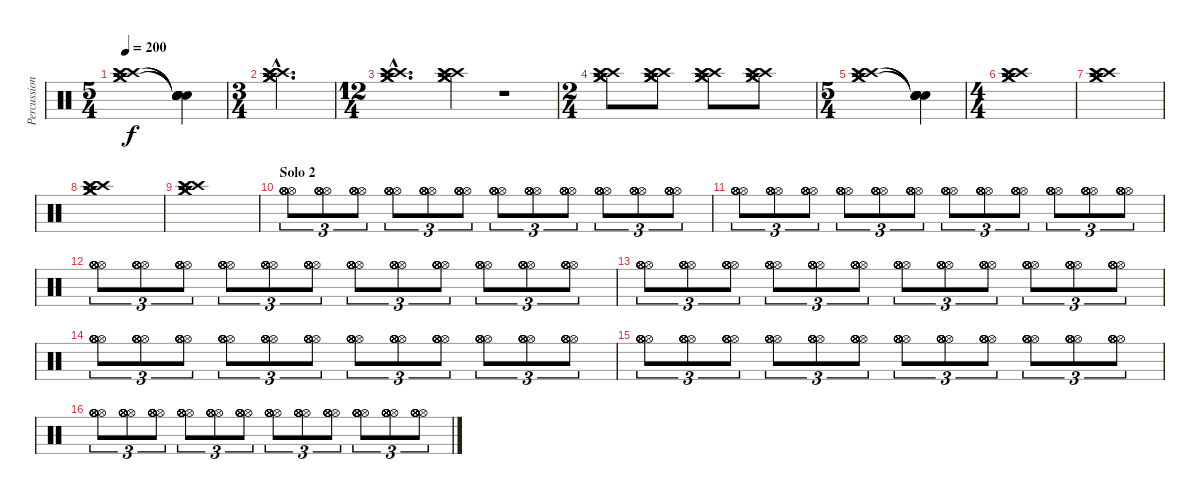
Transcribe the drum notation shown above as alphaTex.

\track ("Percussion" "Percussion") {instrument percussion}
\staff {score}
\articulation defaults
\ts (5 4)
\tempo 200
\clef neutral
\ks c
("Crash high (hit)" "Crash high (hit)" "Crash high (hit)" "Crash medium (hit)" "Crash medium (hit)" "Crash medium (hit)").1{dy f} ("Snare (hit)"{t} "Snare (hit)"{t} "Snare (hit)"{t} "Snare (hit)"{t} "Snare (hit)"{t} "Snare (hit)"{t}).4 |
\ts (3 4)
("Crash high (hit)"{hac} "Crash high (hit)"{hac} "Crash high (hit)"{hac} "Crash medium (hit)"{hac} "Crash medium (hit)"{hac} "Crash medium (hit)"{hac}).2{d} |
\ts (12 4)
("Crash high (hit)"{hac} "Crash high (hit)"{hac} "Crash high (hit)"{hac} "Crash medium (hit)"{hac} "Crash medium (hit)"{hac} "Crash medium (hit)"{hac}).1{d} ("Crash high (hit)" "Crash high (hit)" "Crash high (hit)" "Crash medium (hit)" "Crash medium (hit)" "Crash medium (hit)").2 r.1 |
\ts (2 4)
("Crash high (hit)" "Crash high (hit)" "Crash high (hit)" "Crash medium (hit)" "Crash medium (hit)" "Crash medium (hit)").8 ("Crash high (hit)" "Crash high (hit)" "Crash high (hit)" "Crash medium (hit)" "Crash medium (hit)" "Crash medium (hit)").8 ("Crash high (hit)" "Crash high (hit)" "Crash high (hit)" "Crash medium (hit)" "Crash medium (hit)" "Crash medium (hit)").8 ("Crash high (hit)" "Crash high (hit)" "Crash high (hit)" "Crash medium (hit)" "Crash medium (hit)" "Crash medium (hit)").8 |
\ts (5 4)
("Crash high (hit)" "Crash high (hit)" "Crash high (hit)" "Crash medium (hit)" "Crash medium (hit)" "Crash medium (hit)").1 ("Snare (hit)"{t} "Snare (hit)"{t} "Snare (hit)"{t} "Snare (hit)"{t} "Snare (hit)"{t} "Snare (hit)"{t}).4 |
\ts (4 4)
("Crash high (hit)" "Crash high (hit)" "Crash high (hit)" "Crash medium (hit)" "Crash medium (hit)" "Crash medium (hit)").1 |
("Crash high (hit)" "Crash high (hit)" "Crash high (hit)" "Crash medium (hit)" "Crash medium (hit)" "Crash medium (hit)").1 |
("Crash high (hit)" "Crash high (hit)" "Crash high (hit)" "Crash medium (hit)" "Crash medium (hit)" "Crash medium (hit)").1 |
("Crash high (hit)" "Crash high (hit)" "Crash high (hit)" "Crash medium (hit)" "Crash medium (hit)" "Crash medium (hit)").1 |
\section ("" "Solo 2 ")
("Hi-Hat (open)" "Hi-Hat (open)" "Hi-Hat (open)" "Hi-Hat (open)" "Hi-Hat (open)" "Hi-Hat (open)").8{tu (3 2)} ("Hi-Hat (open)" "Hi-Hat (open)" "Hi-Hat (open)" "Hi-Hat (open)" "Hi-Hat (open)" "Hi-Hat (open)").8{tu (3 2)} ("Hi-Hat (open)" "Hi-Hat (open)" "Hi-Hat (open)" "Hi-Hat (open)" "Hi-Hat (open)" "Hi-Hat (open)").8{tu (3 2)} ("Hi-Hat (open)" "Hi-Hat (open)" "Hi-Hat (open)" "Hi-Hat (open)" "Hi-Hat (open)" "Hi-Hat (open)").8{tu (3 2)} ("Hi-Hat (open)" "Hi-Hat (open)" "Hi-Hat (open)" "Hi-Hat (open)" "Hi-Hat (open)" "Hi-Hat (open)").8{tu (3 2)} ("Hi-Hat (open)" "Hi-Hat (open)" "Hi-Hat (open)" "Hi-Hat (open)" "Hi-Hat (open)" "Hi-Hat (open)").8{tu (3 2)} ("Hi-Hat (open)" "Hi-Hat (open)" "Hi-Hat (open)" "Hi-Hat (open)" "Hi-Hat (open)" "Hi-Hat (open)").8{tu (3 2)} ("Hi-Hat (open)" "Hi-Hat (open)" "Hi-Hat (open)" "Hi-Hat (open)" "Hi-Hat (open)" "Hi-Hat (open)").8{tu (3 2)} ("Hi-Hat (open)" "Hi-Hat (open)" "Hi-Hat (open)" "Hi-Hat (open)" "Hi-Hat (open)" "Hi-Hat (open)").8{tu (3 2)} ("Hi-Hat (open)" "Hi-Hat (open)" "Hi-Hat (open)" "Hi-Hat (open)" "Hi-Hat (open)" "Hi-Hat (open)").8{tu (3 2)} ("Hi-Hat (open)" "Hi-Hat (open)" "Hi-Hat (open)" "Hi-Hat (open)" "Hi-Hat (open)" "Hi-Hat (open)").8{tu (3 2)} ("Hi-Hat (open)" "Hi-Hat (open)" "Hi-Hat (open)" "Hi-Hat (open)" "Hi-Hat (open)" "Hi-Hat (open)").8{tu (3 2)} |
("Hi-Hat (open)" "Hi-Hat (open)" "Hi-Hat (open)" "Hi-Hat (open)" "Hi-Hat (open)" "Hi-Hat (open)").8{tu (3 2)} ("Hi-Hat (open)" "Hi-Hat (open)" "Hi-Hat (open)" "Hi-Hat (open)" "Hi-Hat (open)" "Hi-Hat (open)").8{tu (3 2)} ("Hi-Hat (open)" "Hi-Hat (open)" "Hi-Hat (open)" "Hi-Hat (open)" "Hi-Hat (open)" "Hi-Hat (open)").8{tu (3 2)} ("Hi-Hat (open)" "Hi-Hat (open)" "Hi-Hat (open)" "Hi-Hat (open)" "Hi-Hat (open)" "Hi-Hat (open)").8{tu (3 2)} ("Hi-Hat (open)" "Hi-Hat (open)" "Hi-Hat (open)" "Hi-Hat (open)" "Hi-Hat (open)" "Hi-Hat (open)").8{tu (3 2)} ("Hi-Hat (open)" "Hi-Hat (open)" "Hi-Hat (open)" "Hi-Hat (open)" "Hi-Hat (open)" "Hi-Hat (open)").8{tu (3 2)} ("Hi-Hat (open)" "Hi-Hat (open)" "Hi-Hat (open)" "Hi-Hat (open)" "Hi-Hat (open)" "Hi-Hat (open)").8{tu (3 2)} ("Hi-Hat (open)" "Hi-Hat (open)" "Hi-Hat (open)" "Hi-Hat (open)" "Hi-Hat (open)" "Hi-Hat (open)").8{tu (3 2)} ("Hi-Hat (open)" "Hi-Hat (open)" "Hi-Hat (open)" "Hi-Hat (open)" "Hi-Hat (open)" "Hi-Hat (open)").8{tu (3 2)} ("Hi-Hat (open)" "Hi-Hat (open)" "Hi-Hat (open)" "Hi-Hat (open)" "Hi-Hat (open)" "Hi-Hat (open)").8{tu (3 2)} ("Hi-Hat (open)" "Hi-Hat (open)" "Hi-Hat (open)" "Hi-Hat (open)" "Hi-Hat (open)" "Hi-Hat (open)").8{tu (3 2)} ("Hi-Hat (open)" "Hi-Hat (open)" "Hi-Hat (open)" "Hi-Hat (open)" "Hi-Hat (open)" "Hi-Hat (open)").8{tu (3 2)} |
("Hi-Hat (open)" "Hi-Hat (open)" "Hi-Hat (open)" "Hi-Hat (open)" "Hi-Hat (open)" "Hi-Hat (open)").8{tu (3 2)} ("Hi-Hat (open)" "Hi-Hat (open)" "Hi-Hat (open)" "Hi-Hat (open)" "Hi-Hat (open)" "Hi-Hat (open)").8{tu (3 2)} ("Hi-Hat (open)" "Hi-Hat (open)" "Hi-Hat (open)" "Hi-Hat (open)" "Hi-Hat (open)" "Hi-Hat (open)").8{tu (3 2)} ("Hi-Hat (open)" "Hi-Hat (open)" "Hi-Hat (open)" "Hi-Hat (open)" "Hi-Hat (open)" "Hi-Hat (open)").8{tu (3 2)} ("Hi-Hat (open)" "Hi-Hat (open)" "Hi-Hat (open)" "Hi-Hat (open)" "Hi-Hat (open)" "Hi-Hat (open)").8{tu (3 2)} ("Hi-Hat (open)" "Hi-Hat (open)" "Hi-Hat (open)" "Hi-Hat (open)" "Hi-Hat (open)" "Hi-Hat (open)").8{tu (3 2)} ("Hi-Hat (open)" "Hi-Hat (open)" "Hi-Hat (open)" "Hi-Hat (open)" "Hi-Hat (open)" "Hi-Hat (open)").8{tu (3 2)} ("Hi-Hat (open)" "Hi-Hat (open)" "Hi-Hat (open)" "Hi-Hat (open)" "Hi-Hat (open)" "Hi-Hat (open)").8{tu (3 2)} ("Hi-Hat (open)" "Hi-Hat (open)" "Hi-Hat (open)" "Hi-Hat (open)" "Hi-Hat (open)" "Hi-Hat (open)").8{tu (3 2)} ("Hi-Hat (open)" "Hi-Hat (open)" "Hi-Hat (open)" "Hi-Hat (open)" "Hi-Hat (open)" "Hi-Hat (open)").8{tu (3 2)} ("Hi-Hat (open)" "Hi-Hat (open)" "Hi-Hat (open)" "Hi-Hat (open)" "Hi-Hat (open)" "Hi-Hat (open)").8{tu (3 2)} ("Hi-Hat (open)" "Hi-Hat (open)" "Hi-Hat (open)" "Hi-Hat (open)" "Hi-Hat (open)" "Hi-Hat (open)").8{tu (3 2)} |
("Hi-Hat (open)" "Hi-Hat (open)" "Hi-Hat (open)" "Hi-Hat (open)" "Hi-Hat (open)" "Hi-Hat (open)").8{tu (3 2)} ("Hi-Hat (open)" "Hi-Hat (open)" "Hi-Hat (open)" "Hi-Hat (open)" "Hi-Hat (open)" "Hi-Hat (open)").8{tu (3 2)} ("Hi-Hat (open)" "Hi-Hat (open)" "Hi-Hat (open)" "Hi-Hat (open)" "Hi-Hat (open)" "Hi-Hat (open)").8{tu (3 2)} ("Hi-Hat (open)" "Hi-Hat (open)" "Hi-Hat (open)" "Hi-Hat (open)" "Hi-Hat (open)" "Hi-Hat (open)").8{tu (3 2)} ("Hi-Hat (open)" "Hi-Hat (open)" "Hi-Hat (open)" "Hi-Hat (open)" "Hi-Hat (open)" "Hi-Hat (open)").8{tu (3 2)} ("Hi-Hat (open)" "Hi-Hat (open)" "Hi-Hat (open)" "Hi-Hat (open)" "Hi-Hat (open)" "Hi-Hat (open)").8{tu (3 2)} ("Hi-Hat (open)" "Hi-Hat (open)" "Hi-Hat (open)" "Hi-Hat (open)" "Hi-Hat (open)" "Hi-Hat (open)").8{tu (3 2)} ("Hi-Hat (open)" "Hi-Hat (open)" "Hi-Hat (open)" "Hi-Hat (open)" "Hi-Hat (open)" "Hi-Hat (open)").8{tu (3 2)} ("Hi-Hat (open)" "Hi-Hat (open)" "Hi-Hat (open)" "Hi-Hat (open)" "Hi-Hat (open)" "Hi-Hat (open)").8{tu (3 2)} ("Hi-Hat (open)" "Hi-Hat (open)" "Hi-Hat (open)" "Hi-Hat (open)" "Hi-Hat (open)" "Hi-Hat (open)").8{tu (3 2)} ("Hi-Hat (open)" "Hi-Hat (open)" "Hi-Hat (open)" "Hi-Hat (open)" "Hi-Hat (open)" "Hi-Hat (open)").8{tu (3 2)} ("Hi-Hat (open)" "Hi-Hat (open)" "Hi-Hat (open)" "Hi-Hat (open)" "Hi-Hat (open)" "Hi-Hat (open)").8{tu (3 2)} |
("Hi-Hat (open)" "Hi-Hat (open)" "Hi-Hat (open)" "Hi-Hat (open)" "Hi-Hat (open)" "Hi-Hat (open)").8{tu (3 2)} ("Hi-Hat (open)" "Hi-Hat (open)" "Hi-Hat (open)" "Hi-Hat (open)" "Hi-Hat (open)" "Hi-Hat (open)").8{tu (3 2)} ("Hi-Hat (open)" "Hi-Hat (open)" "Hi-Hat (open)" "Hi-Hat (open)" "Hi-Hat (open)" "Hi-Hat (open)").8{tu (3 2)} ("Hi-Hat (open)" "Hi-Hat (open)" "Hi-Hat (open)" "Hi-Hat (open)" "Hi-Hat (open)" "Hi-Hat (open)").8{tu (3 2)} ("Hi-Hat (open)" "Hi-Hat (open)" "Hi-Hat (open)" "Hi-Hat (open)" "Hi-Hat (open)" "Hi-Hat (open)").8{tu (3 2)} ("Hi-Hat (open)" "Hi-Hat (open)" "Hi-Hat (open)" "Hi-Hat (open)" "Hi-Hat (open)" "Hi-Hat (open)").8{tu (3 2)} ("Hi-Hat (open)" "Hi-Hat (open)" "Hi-Hat (open)" "Hi-Hat (open)" "Hi-Hat (open)" "Hi-Hat (open)").8{tu (3 2)} ("Hi-Hat (open)" "Hi-Hat (open)" "Hi-Hat (open)" "Hi-Hat (open)" "Hi-Hat (open)" "Hi-Hat (open)").8{tu (3 2)} ("Hi-Hat (open)" "Hi-Hat (open)" "Hi-Hat (open)" "Hi-Hat (open)" "Hi-Hat (open)" "Hi-Hat (open)").8{tu (3 2)} ("Hi-Hat (open)" "Hi-Hat (open)" "Hi-Hat (open)" "Hi-Hat (open)" "Hi-Hat (open)" "Hi-Hat (open)").8{tu (3 2)} ("Hi-Hat (open)" "Hi-Hat (open)" "Hi-Hat (open)" "Hi-Hat (open)" "Hi-Hat (open)" "Hi-Hat (open)").8{tu (3 2)} ("Hi-Hat (open)" "Hi-Hat (open)" "Hi-Hat (open)" "Hi-Hat (open)" "Hi-Hat (open)" "Hi-Hat (open)").8{tu (3 2)} |
("Hi-Hat (open)" "Hi-Hat (open)" "Hi-Hat (open)" "Hi-Hat (open)" "Hi-Hat (open)" "Hi-Hat (open)").8{tu (3 2)} ("Hi-Hat (open)" "Hi-Hat (open)" "Hi-Hat (open)" "Hi-Hat (open)" "Hi-Hat (open)" "Hi-Hat (open)").8{tu (3 2)} ("Hi-Hat (open)" "Hi-Hat (open)" "Hi-Hat (open)" "Hi-Hat (open)" "Hi-Hat (open)" "Hi-Hat (open)").8{tu (3 2)} ("Hi-Hat (open)" "Hi-Hat (open)" "Hi-Hat (open)" "Hi-Hat (open)" "Hi-Hat (open)" "Hi-Hat (open)").8{tu (3 2)} ("Hi-Hat (open)" "Hi-Hat (open)" "Hi-Hat (open)" "Hi-Hat (open)" "Hi-Hat (open)" "Hi-Hat (open)").8{tu (3 2)} ("Hi-Hat (open)" "Hi-Hat (open)" "Hi-Hat (open)" "Hi-Hat (open)" "Hi-Hat (open)" "Hi-Hat (open)").8{tu (3 2)} ("Hi-Hat (open)" "Hi-Hat (open)" "Hi-Hat (open)" "Hi-Hat (open)" "Hi-Hat (open)" "Hi-Hat (open)").8{tu (3 2)} ("Hi-Hat (open)" "Hi-Hat (open)" "Hi-Hat (open)" "Hi-Hat (open)" "Hi-Hat (open)" "Hi-Hat (open)").8{tu (3 2)} ("Hi-Hat (open)" "Hi-Hat (open)" "Hi-Hat (open)" "Hi-Hat (open)" "Hi-Hat (open)" "Hi-Hat (open)").8{tu (3 2)} ("Hi-Hat (open)" "Hi-Hat (open)" "Hi-Hat (open)" "Hi-Hat (open)" "Hi-Hat (open)" "Hi-Hat (open)").8{tu (3 2)} ("Hi-Hat (open)" "Hi-Hat (open)" "Hi-Hat (open)" "Hi-Hat (open)" "Hi-Hat (open)" "Hi-Hat (open)").8{tu (3 2)} ("Hi-Hat (open)" "Hi-Hat (open)" "Hi-Hat (open)" "Hi-Hat (open)" "Hi-Hat (open)" "Hi-Hat (open)").8{tu (3 2)} |
("Hi-Hat (open)" "Hi-Hat (open)" "Hi-Hat (open)" "Hi-Hat (open)" "Hi-Hat (open)" "Hi-Hat (open)").8{tu (3 2)} ("Hi-Hat (open)" "Hi-Hat (open)" "Hi-Hat (open)" "Hi-Hat (open)" "Hi-Hat (open)" "Hi-Hat (open)").8{tu (3 2)} ("Hi-Hat (open)" "Hi-Hat (open)" "Hi-Hat (open)" "Hi-Hat (open)" "Hi-Hat (open)" "Hi-Hat (open)").8{tu (3 2)} ("Hi-Hat (open)" "Hi-Hat (open)" "Hi-Hat (open)" "Hi-Hat (open)" "Hi-Hat (open)" "Hi-Hat (open)").8{tu (3 2)} ("Hi-Hat (open)" "Hi-Hat (open)" "Hi-Hat (open)" "Hi-Hat (open)" "Hi-Hat (open)" "Hi-Hat (open)").8{tu (3 2)} ("Hi-Hat (open)" "Hi-Hat (open)" "Hi-Hat (open)" "Hi-Hat (open)" "Hi-Hat (open)" "Hi-Hat (open)").8{tu (3 2)} ("Hi-Hat (open)" "Hi-Hat (open)" "Hi-Hat (open)" "Hi-Hat (open)" "Hi-Hat (open)" "Hi-Hat (open)").8{tu (3 2)} ("Hi-Hat (open)" "Hi-Hat (open)" "Hi-Hat (open)" "Hi-Hat (open)" "Hi-Hat (open)" "Hi-Hat (open)").8{tu (3 2)} ("Hi-Hat (open)" "Hi-Hat (open)" "Hi-Hat (open)" "Hi-Hat (open)" "Hi-Hat (open)" "Hi-Hat (open)").8{tu (3 2)} ("Hi-Hat (open)" "Hi-Hat (open)" "Hi-Hat (open)" "Hi-Hat (open)" "Hi-Hat (open)" "Hi-Hat (open)").8{tu (3 2)} ("Hi-Hat (open)" "Hi-Hat (open)" "Hi-Hat (open)" "Hi-Hat (open)" "Hi-Hat (open)" "Hi-Hat (open)").8{tu (3 2)} ("Hi-Hat (open)" "Hi-Hat (open)" "Hi-Hat (open)" "Hi-Hat (open)" "Hi-Hat (open)" "Hi-Hat (open)").8{tu (3 2)}
